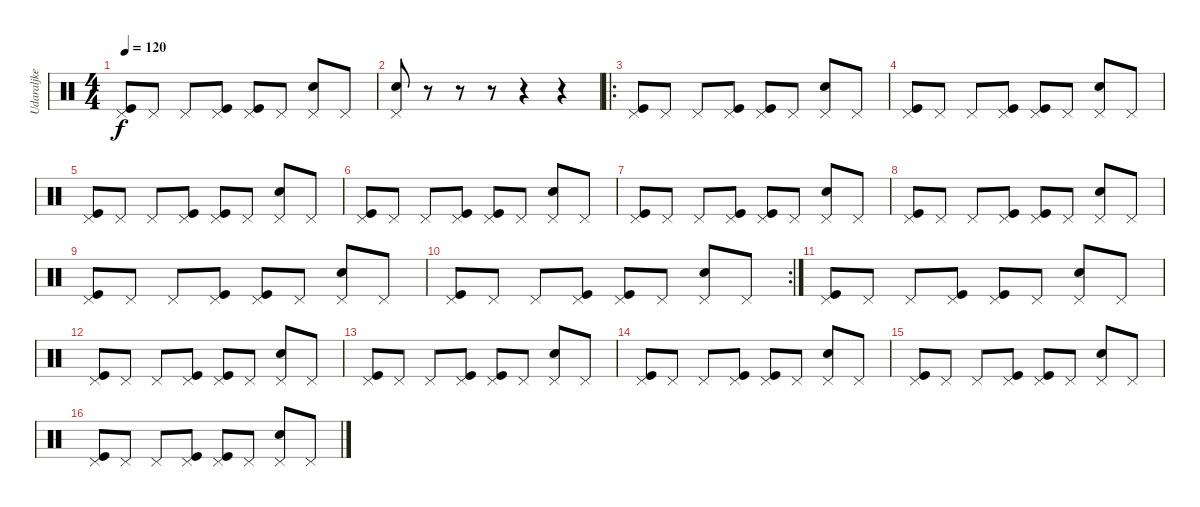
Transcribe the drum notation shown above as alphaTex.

\track ("Udaraljke" "Udaraljke") {instrument percussion}
\staff {score}
\articulation defaults
\ts (4 4)
\tempo 120
\clef neutral
\ks c
("Pedal Hi-Hat (hit)" "Kick (hit)").8{dy f} "Pedal Hi-Hat (hit)".8 "Pedal Hi-Hat (hit)".8 ("Pedal Hi-Hat (hit)" "Kick (hit)").8 ("Pedal Hi-Hat (hit)" "Kick (hit)").8 "Pedal Hi-Hat (hit)".8 ("Pedal Hi-Hat (hit)" "Snare (hit) 2").8 "Pedal Hi-Hat (hit)".8 |
("Pedal Hi-Hat (hit)" "Snare (hit) 2").8 r.8 r.8 r.8 r.4 r.4 |
\ro
("Pedal Hi-Hat (hit)" "Kick (hit)").8 "Pedal Hi-Hat (hit)".8 "Pedal Hi-Hat (hit)".8 ("Pedal Hi-Hat (hit)" "Kick (hit)").8 ("Pedal Hi-Hat (hit)" "Kick (hit)").8 "Pedal Hi-Hat (hit)".8 ("Pedal Hi-Hat (hit)" "Snare (hit) 2").8 "Pedal Hi-Hat (hit)".8 |
("Pedal Hi-Hat (hit)" "Kick (hit)").8 "Pedal Hi-Hat (hit)".8 "Pedal Hi-Hat (hit)".8 ("Pedal Hi-Hat (hit)" "Kick (hit)").8 ("Pedal Hi-Hat (hit)" "Kick (hit)").8 "Pedal Hi-Hat (hit)".8 ("Pedal Hi-Hat (hit)" "Snare (hit) 2").8 "Pedal Hi-Hat (hit)".8 |
("Pedal Hi-Hat (hit)" "Kick (hit)").8 "Pedal Hi-Hat (hit)".8 "Pedal Hi-Hat (hit)".8 ("Pedal Hi-Hat (hit)" "Kick (hit)").8 ("Pedal Hi-Hat (hit)" "Kick (hit)").8 "Pedal Hi-Hat (hit)".8 ("Pedal Hi-Hat (hit)" "Snare (hit) 2").8 "Pedal Hi-Hat (hit)".8 |
("Pedal Hi-Hat (hit)" "Kick (hit)").8 "Pedal Hi-Hat (hit)".8 "Pedal Hi-Hat (hit)".8 ("Pedal Hi-Hat (hit)" "Kick (hit)").8 ("Pedal Hi-Hat (hit)" "Kick (hit)").8 "Pedal Hi-Hat (hit)".8 ("Pedal Hi-Hat (hit)" "Snare (hit) 2").8 "Pedal Hi-Hat (hit)".8 |
("Pedal Hi-Hat (hit)" "Kick (hit)").8 "Pedal Hi-Hat (hit)".8 "Pedal Hi-Hat (hit)".8 ("Pedal Hi-Hat (hit)" "Kick (hit)").8 ("Pedal Hi-Hat (hit)" "Kick (hit)").8 "Pedal Hi-Hat (hit)".8 ("Pedal Hi-Hat (hit)" "Snare (hit) 2").8 "Pedal Hi-Hat (hit)".8 |
("Pedal Hi-Hat (hit)" "Kick (hit)").8 "Pedal Hi-Hat (hit)".8 "Pedal Hi-Hat (hit)".8 ("Pedal Hi-Hat (hit)" "Kick (hit)").8 ("Pedal Hi-Hat (hit)" "Kick (hit)").8 "Pedal Hi-Hat (hit)".8 ("Pedal Hi-Hat (hit)" "Snare (hit) 2").8 "Pedal Hi-Hat (hit)".8 |
("Pedal Hi-Hat (hit)" "Kick (hit)").8 "Pedal Hi-Hat (hit)".8 "Pedal Hi-Hat (hit)".8 ("Pedal Hi-Hat (hit)" "Kick (hit)").8 ("Pedal Hi-Hat (hit)" "Kick (hit)").8 "Pedal Hi-Hat (hit)".8 ("Pedal Hi-Hat (hit)" "Snare (hit) 2").8 "Pedal Hi-Hat (hit)".8 |
\rc 2
("Pedal Hi-Hat (hit)" "Kick (hit)").8 "Pedal Hi-Hat (hit)".8 "Pedal Hi-Hat (hit)".8 ("Pedal Hi-Hat (hit)" "Kick (hit)").8 ("Pedal Hi-Hat (hit)" "Kick (hit)").8 "Pedal Hi-Hat (hit)".8 ("Pedal Hi-Hat (hit)" "Snare (hit) 2").8 "Pedal Hi-Hat (hit)".8 |
("Pedal Hi-Hat (hit)" "Kick (hit)").8 "Pedal Hi-Hat (hit)".8 "Pedal Hi-Hat (hit)".8 ("Pedal Hi-Hat (hit)" "Kick (hit)").8 ("Pedal Hi-Hat (hit)" "Kick (hit)").8 "Pedal Hi-Hat (hit)".8 ("Pedal Hi-Hat (hit)" "Snare (hit) 2").8 "Pedal Hi-Hat (hit)".8 |
("Pedal Hi-Hat (hit)" "Kick (hit)").8 "Pedal Hi-Hat (hit)".8 "Pedal Hi-Hat (hit)".8 ("Pedal Hi-Hat (hit)" "Kick (hit)").8 ("Pedal Hi-Hat (hit)" "Kick (hit)").8 "Pedal Hi-Hat (hit)".8 ("Pedal Hi-Hat (hit)" "Snare (hit) 2").8 "Pedal Hi-Hat (hit)".8 |
("Pedal Hi-Hat (hit)" "Kick (hit)").8 "Pedal Hi-Hat (hit)".8 "Pedal Hi-Hat (hit)".8 ("Pedal Hi-Hat (hit)" "Kick (hit)").8 ("Pedal Hi-Hat (hit)" "Kick (hit)").8 "Pedal Hi-Hat (hit)".8 ("Pedal Hi-Hat (hit)" "Snare (hit) 2").8 "Pedal Hi-Hat (hit)".8 |
("Pedal Hi-Hat (hit)" "Kick (hit)").8 "Pedal Hi-Hat (hit)".8 "Pedal Hi-Hat (hit)".8 ("Pedal Hi-Hat (hit)" "Kick (hit)").8 ("Pedal Hi-Hat (hit)" "Kick (hit)").8 "Pedal Hi-Hat (hit)".8 ("Pedal Hi-Hat (hit)" "Snare (hit) 2").8 "Pedal Hi-Hat (hit)".8 |
("Pedal Hi-Hat (hit)" "Kick (hit)").8 "Pedal Hi-Hat (hit)".8 "Pedal Hi-Hat (hit)".8 ("Pedal Hi-Hat (hit)" "Kick (hit)").8 ("Pedal Hi-Hat (hit)" "Kick (hit)").8 "Pedal Hi-Hat (hit)".8 ("Pedal Hi-Hat (hit)" "Snare (hit) 2").8 "Pedal Hi-Hat (hit)".8 |
("Pedal Hi-Hat (hit)" "Kick (hit)").8 "Pedal Hi-Hat (hit)".8 "Pedal Hi-Hat (hit)".8 ("Pedal Hi-Hat (hit)" "Kick (hit)").8 ("Pedal Hi-Hat (hit)" "Kick (hit)").8 "Pedal Hi-Hat (hit)".8 ("Pedal Hi-Hat (hit)" "Snare (hit) 2").8 "Pedal Hi-Hat (hit)".8
